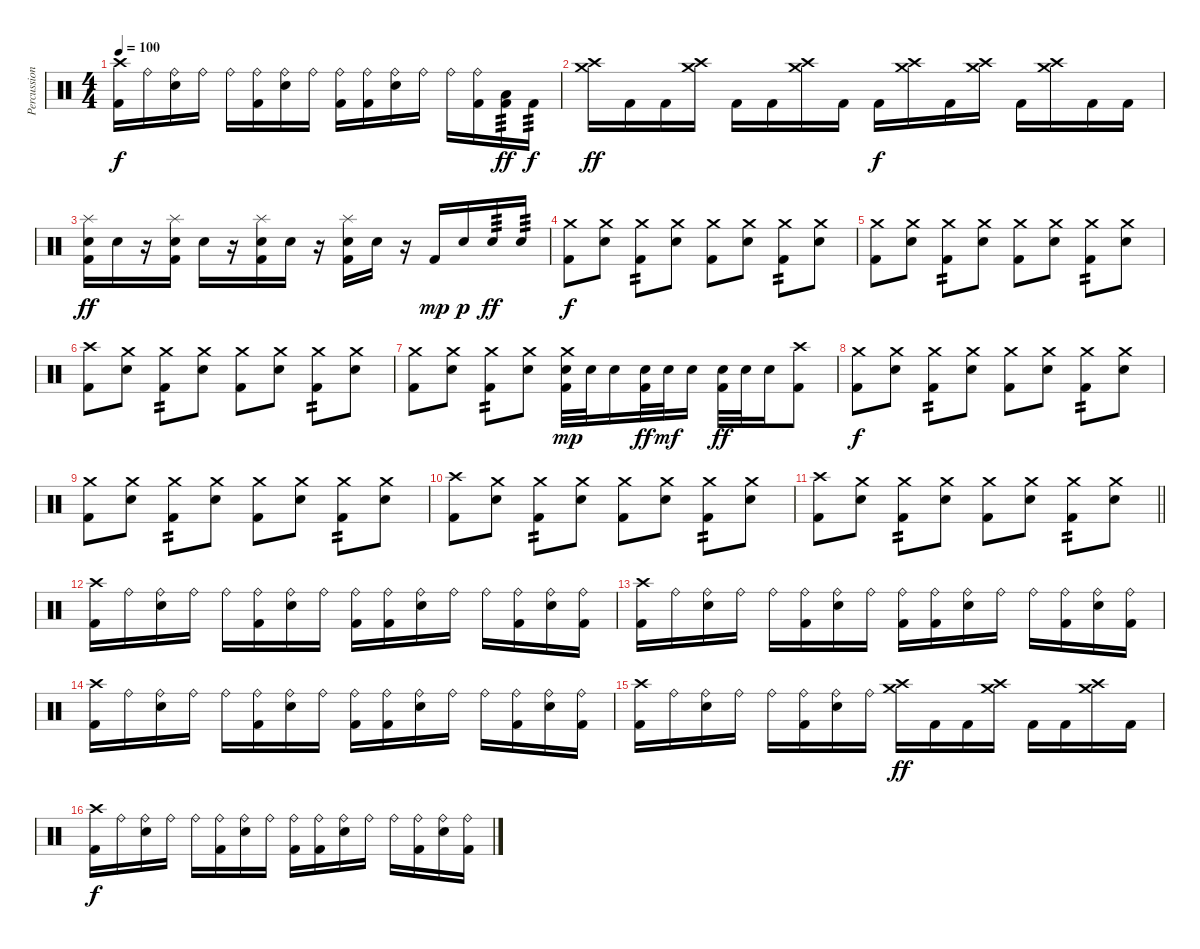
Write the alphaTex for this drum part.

\track ("Percussion" "Percussion") {instrument percussion}
\staff {score}
\articulation defaults
\ts (4 4)
\tempo 100
\clef neutral
\ks c
("Crash high (hit)" "Kick (hit) 2").16{dy f} "Ride (bell)".16 ("Ride (bell)" "Electric Snare (hit)").16 "Ride (bell)".16 "Ride (bell)".16 ("Ride (bell)" "Kick (hit) 2").16 ("Ride (bell)" "Electric Snare (hit)").16 "Ride (bell)".16 ("Ride (bell)" "Kick (hit) 2").16 ("Ride (bell)" "Kick (hit) 2").16 ("Ride (bell)" "Electric Snare (hit)").16 "Ride (bell)".16 "Ride (bell)".16 ("Ride (bell)" "Kick (hit) 2").16 ("Low Tom (hit)" "Kick (hit) 2").16{tp 3 dy ff} "Kick (hit) 2".16{tp 3 dy f} |
("Crash high (hit)" "Crash medium (hit)").16{dy ff} "Kick (hit) 2".16 "Kick (hit) 2".16 ("Crash high (hit)" "Crash medium (hit)").16 "Kick (hit) 2".16 "Kick (hit) 2".16 ("Crash high (hit)" "Crash medium (hit)").16 "Kick (hit) 2".16 "Kick (hit) 2".16{dy f} ("Crash high (hit)" "Crash medium (hit)").16 "Kick (hit) 2".16 ("Crash high (hit)" "Crash medium (hit)").16 "Kick (hit) 2".16 ("Crash high (hit)" "Crash medium (hit)").16 "Kick (hit) 2".16 "Kick (hit) 2".16 |
("Splash (hit)" "Electric Snare (hit)" "Kick (hit) 2").16{dy ff} "Electric Snare (hit)".16 r.16 ("Splash (hit)" "Electric Snare (hit)" "Kick (hit) 2").16 "Electric Snare (hit)".16 r.16 ("Splash (hit)" "Electric Snare (hit)" "Kick (hit) 2").16 "Electric Snare (hit)".16 r.16 ("Splash (hit)" "Electric Snare (hit)" "Kick (hit) 2").16 "Electric Snare (hit)".16 r.16 "Kick (hit) 2".16{dy mp} "Electric Snare (hit)".16{dy p} "Electric Snare (hit)".16{tp 3 dy ff} "Electric Snare (hit)".16{tp 3} |
("Crash medium (hit)" "Kick (hit) 2").8{dy f} ("Crash medium (hit)" "Electric Snare (hit)").8 ("Crash medium (hit)" "Kick (hit) 2").8{tp 2} ("Crash medium (hit)" "Electric Snare (hit)").8 ("Crash medium (hit)" "Kick (hit) 2").8 ("Crash medium (hit)" "Electric Snare (hit)").8 ("Crash medium (hit)" "Kick (hit) 2").8{tp 2} ("Crash medium (hit)" "Electric Snare (hit)").8 |
("Crash medium (hit)" "Kick (hit) 2").8 ("Crash medium (hit)" "Electric Snare (hit)").8 ("Crash medium (hit)" "Kick (hit) 2").8{tp 2} ("Crash medium (hit)" "Electric Snare (hit)").8 ("Crash medium (hit)" "Kick (hit) 2").8 ("Crash medium (hit)" "Electric Snare (hit)").8 ("Crash medium (hit)" "Kick (hit) 2").8{tp 2} ("Crash medium (hit)" "Electric Snare (hit)").8 |
("Crash high (hit)" "Kick (hit) 2").8 ("Crash medium (hit)" "Electric Snare (hit)").8 ("Crash medium (hit)" "Kick (hit) 2").8{tp 2} ("Crash medium (hit)" "Electric Snare (hit)").8 ("Crash medium (hit)" "Kick (hit) 2").8 ("Crash medium (hit)" "Electric Snare (hit)").8 ("Crash medium (hit)" "Kick (hit) 2").8{tp 2} ("Crash medium (hit)" "Electric Snare (hit)").8 |
("Crash medium (hit)" "Kick (hit) 2").8 ("Crash medium (hit)" "Electric Snare (hit)").8 ("Crash medium (hit)" "Kick (hit) 2").8{tp 2} ("Crash medium (hit)" "Electric Snare (hit)").8 ("Crash medium (hit)" "Electric Snare (hit)" "Kick (hit) 2").32{dy mp} "Electric Snare (hit)".32 "Electric Snare (hit)".16 ("Electric Snare (hit)" "Kick (hit) 2").32{dy ff} "Electric Snare (hit)".32{dy mf} "Electric Snare (hit)".16 ("Electric Snare (hit)" "Kick (hit) 2").32{dy ff} "Electric Snare (hit)".32 "Electric Snare (hit)".16 ("Crash high (hit)" "Kick (hit) 2").8 |
("Crash medium (hit)" "Kick (hit) 2").8{dy f} ("Crash medium (hit)" "Electric Snare (hit)").8 ("Crash medium (hit)" "Kick (hit) 2").8{tp 2} ("Crash medium (hit)" "Electric Snare (hit)").8 ("Crash medium (hit)" "Kick (hit) 2").8 ("Crash medium (hit)" "Electric Snare (hit)").8 ("Crash medium (hit)" "Kick (hit) 2").8{tp 2} ("Crash medium (hit)" "Electric Snare (hit)").8 |
("Crash medium (hit)" "Kick (hit) 2").8 ("Crash medium (hit)" "Electric Snare (hit)").8 ("Crash medium (hit)" "Kick (hit) 2").8{tp 2} ("Crash medium (hit)" "Electric Snare (hit)").8 ("Crash medium (hit)" "Kick (hit) 2").8 ("Crash medium (hit)" "Electric Snare (hit)").8 ("Crash medium (hit)" "Kick (hit) 2").8{tp 2} ("Crash medium (hit)" "Electric Snare (hit)").8 |
("Crash high (hit)" "Kick (hit) 2").8 ("Crash medium (hit)" "Electric Snare (hit)").8 ("Crash medium (hit)" "Kick (hit) 2").8{tp 2} ("Crash medium (hit)" "Electric Snare (hit)").8 ("Crash medium (hit)" "Kick (hit) 2").8 ("Crash medium (hit)" "Electric Snare (hit)").8 ("Crash medium (hit)" "Kick (hit) 2").8{tp 2} ("Crash medium (hit)" "Electric Snare (hit)").8 |
\barLineRight lightlight
("Crash high (hit)" "Kick (hit) 2").8 ("Crash medium (hit)" "Electric Snare (hit)").8 ("Crash medium (hit)" "Kick (hit) 2").8{tp 2} ("Crash medium (hit)" "Electric Snare (hit)").8 ("Crash medium (hit)" "Kick (hit) 2").8 ("Crash medium (hit)" "Electric Snare (hit)").8 ("Crash medium (hit)" "Kick (hit) 2").8{tp 2} ("Crash medium (hit)" "Electric Snare (hit)").8 |
\section ("" "")
("Crash high (hit)" "Kick (hit) 2").16 "Ride (bell)".16 ("Ride (bell)" "Electric Snare (hit)").16 "Ride (bell)".16 "Ride (bell)".16 ("Ride (bell)" "Kick (hit) 2").16 ("Ride (bell)" "Electric Snare (hit)").16 "Ride (bell)".16 ("Ride (bell)" "Kick (hit) 2").16 ("Ride (bell)" "Kick (hit) 2").16 ("Ride (bell)" "Electric Snare (hit)").16 "Ride (bell)".16 "Ride (bell)".16 ("Ride (bell)" "Kick (hit) 2").16 ("Ride (bell)" "Electric Snare (hit)").16 ("Ride (bell)" "Kick (hit) 2").16 |
("Crash high (hit)" "Kick (hit) 2").16 "Ride (bell)".16 ("Ride (bell)" "Electric Snare (hit)").16 "Ride (bell)".16 "Ride (bell)".16 ("Ride (bell)" "Kick (hit) 2").16 ("Ride (bell)" "Electric Snare (hit)").16 "Ride (bell)".16 ("Ride (bell)" "Kick (hit) 2").16 ("Ride (bell)" "Kick (hit) 2").16 ("Ride (bell)" "Electric Snare (hit)").16 "Ride (bell)".16 "Ride (bell)".16 ("Ride (bell)" "Kick (hit) 2").16 ("Ride (bell)" "Electric Snare (hit)").16 ("Ride (bell)" "Kick (hit) 2").16 |
("Crash high (hit)" "Kick (hit) 2").16 "Ride (bell)".16 ("Ride (bell)" "Electric Snare (hit)").16 "Ride (bell)".16 "Ride (bell)".16 ("Ride (bell)" "Kick (hit) 2").16 ("Ride (bell)" "Electric Snare (hit)").16 "Ride (bell)".16 ("Ride (bell)" "Kick (hit) 2").16 ("Ride (bell)" "Kick (hit) 2").16 ("Ride (bell)" "Electric Snare (hit)").16 "Ride (bell)".16 "Ride (bell)".16 ("Ride (bell)" "Kick (hit) 2").16 ("Ride (bell)" "Electric Snare (hit)").16 ("Ride (bell)" "Kick (hit) 2").16 |
("Crash high (hit)" "Kick (hit) 2").16 "Ride (bell)".16 ("Ride (bell)" "Electric Snare (hit)").16 "Ride (bell)".16 "Ride (bell)".16 ("Ride (bell)" "Kick (hit) 2").16 ("Ride (bell)" "Electric Snare (hit)").16 "Ride (bell)".16 ("Crash high (hit)" "Crash medium (hit)").16{dy ff} "Kick (hit) 2".16 "Kick (hit) 2".16 ("Crash high (hit)" "Crash medium (hit)").16 "Kick (hit) 2".16 "Kick (hit) 2".16 ("Crash high (hit)" "Crash medium (hit)").16 "Kick (hit) 2".16 |
("Crash high (hit)" "Kick (hit) 2").16{dy f} "Ride (bell)".16 ("Ride (bell)" "Electric Snare (hit)").16 "Ride (bell)".16 "Ride (bell)".16 ("Ride (bell)" "Kick (hit) 2").16 ("Ride (bell)" "Electric Snare (hit)").16 "Ride (bell)".16 ("Ride (bell)" "Kick (hit) 2").16 ("Ride (bell)" "Kick (hit) 2").16 ("Ride (bell)" "Electric Snare (hit)").16 "Ride (bell)".16 "Ride (bell)".16 ("Ride (bell)" "Kick (hit) 2").16 ("Ride (bell)" "Electric Snare (hit)").16 ("Ride (bell)" "Kick (hit) 2").16
